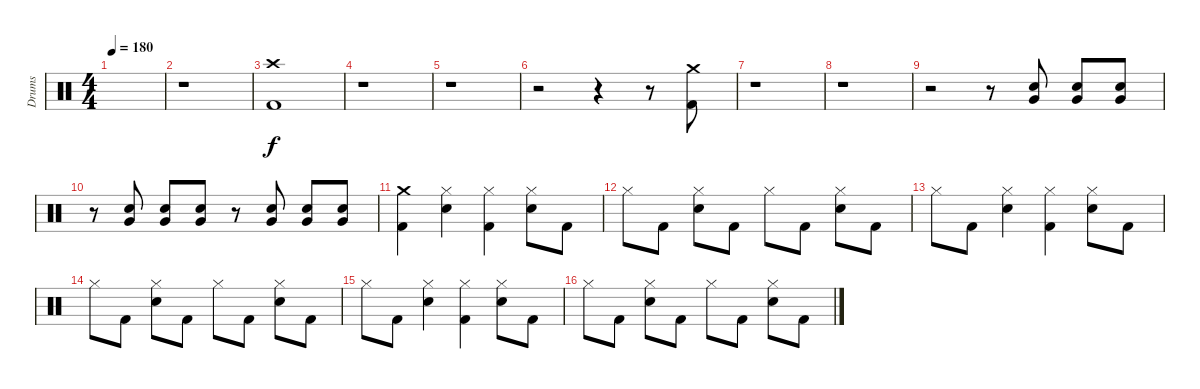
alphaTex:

\track ("Drums" "Drums") {instrument percussion}
\staff {score}
\articulation defaults
\ts (4 4)
\tempo 180
\clef neutral
\ks c
|
r.1 |
("Crash high (hit)" "Kick (hit) 2").1 |
r.1 |
r.1 |
r.2 r.4 r.8 ("Crash medium (hit)" "Kick (hit) 2").8 |
r.1 |
r.1 |
r.2 r.8 ("Electric Snare (hit)" "Very Low Tom (hit)").8 ("Electric Snare (hit)" "Very Low Tom (hit)").8 ("Electric Snare (hit)" "Very Low Tom (hit)").8 |
r.8 ("Electric Snare (hit)" "Very Low Tom (hit)").8 ("Electric Snare (hit)" "Very Low Tom (hit)").8 ("Electric Snare (hit)" "Very Low Tom (hit)").8 r.8 ("Electric Snare (hit)" "Very Low Tom (hit)").8 ("Electric Snare (hit)" "Very Low Tom (hit)").8 ("Electric Snare (hit)" "Very Low Tom (hit)").8 |
("Crash medium (hit)" "Kick (hit) 2").4 ("Hi-Hat (closed)" "Electric Snare (hit)").4 ("Hi-Hat (closed)" "Kick (hit) 2").4 ("Hi-Hat (closed)" "Electric Snare (hit)").8 "Kick (hit) 2".8 |
"Hi-Hat (closed)".8 "Kick (hit) 2".8 ("Hi-Hat (closed)" "Electric Snare (hit)").8 "Kick (hit) 2".8 "Hi-Hat (closed)".8 "Kick (hit) 2".8 ("Hi-Hat (closed)" "Electric Snare (hit)").8 "Kick (hit) 2".8 |
"Hi-Hat (closed)".8 "Kick (hit) 2".8 ("Hi-Hat (closed)" "Electric Snare (hit)").4 ("Hi-Hat (closed)" "Kick (hit) 2").4 ("Hi-Hat (closed)" "Electric Snare (hit)").8 "Kick (hit) 2".8 |
"Hi-Hat (closed)".8 "Kick (hit) 2".8 ("Hi-Hat (closed)" "Electric Snare (hit)").8 "Kick (hit) 2".8 "Hi-Hat (closed)".8 "Kick (hit) 2".8 ("Hi-Hat (closed)" "Electric Snare (hit)").8 "Kick (hit) 2".8 |
"Hi-Hat (closed)".8 "Kick (hit) 2".8 ("Hi-Hat (closed)" "Electric Snare (hit)").4 ("Hi-Hat (closed)" "Kick (hit) 2").4 ("Hi-Hat (closed)" "Electric Snare (hit)").8 "Kick (hit) 2".8 |
"Hi-Hat (closed)".8 "Kick (hit) 2".8 ("Hi-Hat (closed)" "Electric Snare (hit)").8 "Kick (hit) 2".8 "Hi-Hat (closed)".8 "Kick (hit) 2".8 ("Hi-Hat (closed)" "Electric Snare (hit)").8 "Kick (hit) 2".8
